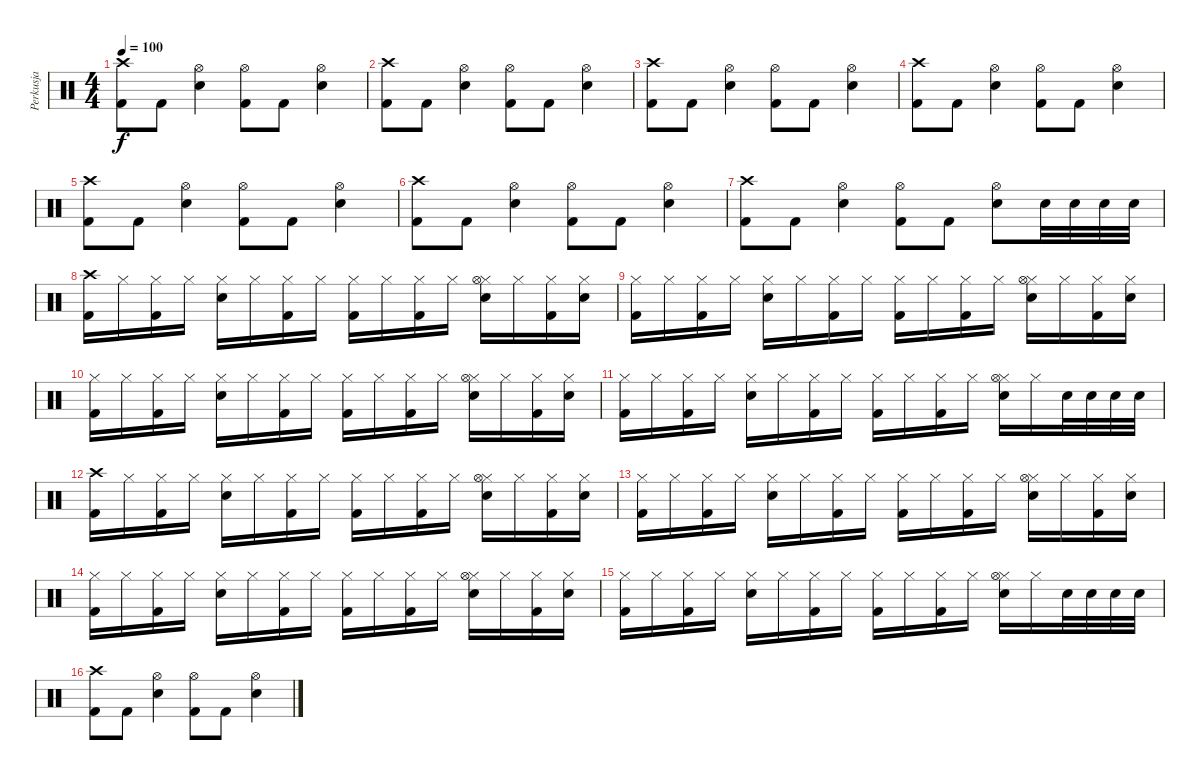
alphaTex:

\track ("Perkusja" "Perkusja") {instrument percussion}
\staff {score}
\articulation defaults
\ts (4 4)
\tempo 100
\clef neutral
\ks c
("Crash high (hit)" "Kick (hit) 2").8{dy f} "Kick (hit) 2".8 ("Hi-Hat (open)" "Electric Snare (hit)").4 ("Hi-Hat (open)" "Kick (hit) 2").8 "Kick (hit) 2".8 ("Hi-Hat (open)" "Electric Snare (hit)").4 |
("Crash high (hit)" "Kick (hit) 2").8 "Kick (hit) 2".8 ("Hi-Hat (open)" "Electric Snare (hit)").4 ("Hi-Hat (open)" "Kick (hit) 2").8 "Kick (hit) 2".8 ("Hi-Hat (open)" "Electric Snare (hit)").4 |
("Crash high (hit)" "Kick (hit) 2").8 "Kick (hit) 2".8 ("Hi-Hat (open)" "Electric Snare (hit)").4 ("Hi-Hat (open)" "Kick (hit) 2").8 "Kick (hit) 2".8 ("Hi-Hat (open)" "Electric Snare (hit)").4 |
("Crash high (hit)" "Kick (hit) 2").8 "Kick (hit) 2".8 ("Hi-Hat (open)" "Electric Snare (hit)").4 ("Hi-Hat (open)" "Kick (hit) 2").8 "Kick (hit) 2".8 ("Hi-Hat (open)" "Electric Snare (hit)").4 |
("Crash high (hit)" "Kick (hit) 2").8 "Kick (hit) 2".8 ("Hi-Hat (open)" "Electric Snare (hit)").4 ("Hi-Hat (open)" "Kick (hit) 2").8 "Kick (hit) 2".8 ("Hi-Hat (open)" "Electric Snare (hit)").4 |
("Crash high (hit)" "Kick (hit) 2").8 "Kick (hit) 2".8 ("Hi-Hat (open)" "Electric Snare (hit)").4 ("Hi-Hat (open)" "Kick (hit) 2").8 "Kick (hit) 2".8 ("Hi-Hat (open)" "Electric Snare (hit)").4 |
("Crash high (hit)" "Kick (hit) 2").8 "Kick (hit) 2".8 ("Hi-Hat (open)" "Electric Snare (hit)").4 ("Hi-Hat (open)" "Kick (hit) 2").8 "Kick (hit) 2".8 ("Hi-Hat (open)" "Electric Snare (hit)").8 "Electric Snare (hit)".32 "Electric Snare (hit)".32 "Electric Snare (hit)".32 "Electric Snare (hit)".32 |
("Crash high (hit)" "Kick (hit) 2").16 "Hi-Hat (closed)".16 ("Hi-Hat (closed)" "Kick (hit) 2").16 "Hi-Hat (closed)".16 ("Hi-Hat (closed)" "Electric Snare (hit)").16 "Hi-Hat (closed)".16 ("Hi-Hat (closed)" "Kick (hit) 2").16 "Hi-Hat (closed)".16 ("Hi-Hat (closed)" "Kick (hit) 2").16 "Hi-Hat (closed)".16 ("Hi-Hat (closed)" "Kick (hit) 2").16 "Hi-Hat (closed)".16 ("Hi-Hat (closed)" "Hi-Hat (open)" "Electric Snare (hit)").16 "Hi-Hat (closed)".16 ("Hi-Hat (closed)" "Kick (hit) 2").16 ("Hi-Hat (closed)" "Electric Snare (hit)").16 |
("Hi-Hat (closed)" "Kick (hit) 2").16 "Hi-Hat (closed)".16 ("Hi-Hat (closed)" "Kick (hit) 2").16 "Hi-Hat (closed)".16 ("Hi-Hat (closed)" "Electric Snare (hit)").16 "Hi-Hat (closed)".16 ("Hi-Hat (closed)" "Kick (hit) 2").16 "Hi-Hat (closed)".16 ("Hi-Hat (closed)" "Kick (hit) 2").16 "Hi-Hat (closed)".16 ("Hi-Hat (closed)" "Kick (hit) 2").16 "Hi-Hat (closed)".16 ("Hi-Hat (closed)" "Hi-Hat (open)" "Electric Snare (hit)").16 "Hi-Hat (closed)".16 ("Hi-Hat (closed)" "Kick (hit) 2").16 ("Hi-Hat (closed)" "Electric Snare (hit)").16 |
("Hi-Hat (closed)" "Kick (hit) 2").16 "Hi-Hat (closed)".16 ("Hi-Hat (closed)" "Kick (hit) 2").16 "Hi-Hat (closed)".16 ("Hi-Hat (closed)" "Electric Snare (hit)").16 "Hi-Hat (closed)".16 ("Hi-Hat (closed)" "Kick (hit) 2").16 "Hi-Hat (closed)".16 ("Hi-Hat (closed)" "Kick (hit) 2").16 "Hi-Hat (closed)".16 ("Hi-Hat (closed)" "Kick (hit) 2").16 "Hi-Hat (closed)".16 ("Hi-Hat (closed)" "Hi-Hat (open)" "Electric Snare (hit)").16 "Hi-Hat (closed)".16 ("Hi-Hat (closed)" "Kick (hit) 2").16 ("Hi-Hat (closed)" "Electric Snare (hit)").16 |
("Hi-Hat (closed)" "Kick (hit) 2").16 "Hi-Hat (closed)".16 ("Hi-Hat (closed)" "Kick (hit) 2").16 "Hi-Hat (closed)".16 ("Hi-Hat (closed)" "Electric Snare (hit)").16 "Hi-Hat (closed)".16 ("Hi-Hat (closed)" "Kick (hit) 2").16 "Hi-Hat (closed)".16 ("Hi-Hat (closed)" "Kick (hit) 2").16 "Hi-Hat (closed)".16 ("Hi-Hat (closed)" "Kick (hit) 2").16 "Hi-Hat (closed)".16 ("Hi-Hat (closed)" "Hi-Hat (open)" "Electric Snare (hit)").16 "Hi-Hat (closed)".16 "Electric Snare (hit)".32 "Electric Snare (hit)".32 "Electric Snare (hit)".32 "Electric Snare (hit)".32 |
("Crash high (hit)" "Kick (hit) 2").16 "Hi-Hat (closed)".16 ("Hi-Hat (closed)" "Kick (hit) 2").16 "Hi-Hat (closed)".16 ("Hi-Hat (closed)" "Electric Snare (hit)").16 "Hi-Hat (closed)".16 ("Hi-Hat (closed)" "Kick (hit) 2").16 "Hi-Hat (closed)".16 ("Hi-Hat (closed)" "Kick (hit) 2").16 "Hi-Hat (closed)".16 ("Hi-Hat (closed)" "Kick (hit) 2").16 "Hi-Hat (closed)".16 ("Hi-Hat (closed)" "Hi-Hat (open)" "Electric Snare (hit)").16 "Hi-Hat (closed)".16 ("Hi-Hat (closed)" "Kick (hit) 2").16 ("Hi-Hat (closed)" "Electric Snare (hit)").16 |
("Hi-Hat (closed)" "Kick (hit) 2").16 "Hi-Hat (closed)".16 ("Hi-Hat (closed)" "Kick (hit) 2").16 "Hi-Hat (closed)".16 ("Hi-Hat (closed)" "Electric Snare (hit)").16 "Hi-Hat (closed)".16 ("Hi-Hat (closed)" "Kick (hit) 2").16 "Hi-Hat (closed)".16 ("Hi-Hat (closed)" "Kick (hit) 2").16 "Hi-Hat (closed)".16 ("Hi-Hat (closed)" "Kick (hit) 2").16 "Hi-Hat (closed)".16 ("Hi-Hat (closed)" "Hi-Hat (open)" "Electric Snare (hit)").16 "Hi-Hat (closed)".16 ("Hi-Hat (closed)" "Kick (hit) 2").16 ("Hi-Hat (closed)" "Electric Snare (hit)").16 |
("Hi-Hat (closed)" "Kick (hit) 2").16 "Hi-Hat (closed)".16 ("Hi-Hat (closed)" "Kick (hit) 2").16 "Hi-Hat (closed)".16 ("Hi-Hat (closed)" "Electric Snare (hit)").16 "Hi-Hat (closed)".16 ("Hi-Hat (closed)" "Kick (hit) 2").16 "Hi-Hat (closed)".16 ("Hi-Hat (closed)" "Kick (hit) 2").16 "Hi-Hat (closed)".16 ("Hi-Hat (closed)" "Kick (hit) 2").16 "Hi-Hat (closed)".16 ("Hi-Hat (closed)" "Hi-Hat (open)" "Electric Snare (hit)").16 "Hi-Hat (closed)".16 ("Hi-Hat (closed)" "Kick (hit) 2").16 ("Hi-Hat (closed)" "Electric Snare (hit)").16 |
("Hi-Hat (closed)" "Kick (hit) 2").16 "Hi-Hat (closed)".16 ("Hi-Hat (closed)" "Kick (hit) 2").16 "Hi-Hat (closed)".16 ("Hi-Hat (closed)" "Electric Snare (hit)").16 "Hi-Hat (closed)".16 ("Hi-Hat (closed)" "Kick (hit) 2").16 "Hi-Hat (closed)".16 ("Hi-Hat (closed)" "Kick (hit) 2").16 "Hi-Hat (closed)".16 ("Hi-Hat (closed)" "Kick (hit) 2").16 "Hi-Hat (closed)".16 ("Hi-Hat (closed)" "Hi-Hat (open)" "Electric Snare (hit)").16 "Hi-Hat (closed)".16 "Electric Snare (hit)".32 "Electric Snare (hit)".32 "Electric Snare (hit)".32 "Electric Snare (hit)".32 |
("Crash high (hit)" "Kick (hit) 2").8 "Kick (hit) 2".8 ("Hi-Hat (open)" "Electric Snare (hit)").4 ("Hi-Hat (open)" "Kick (hit) 2").8 "Kick (hit) 2".8 ("Hi-Hat (open)" "Electric Snare (hit)").4
